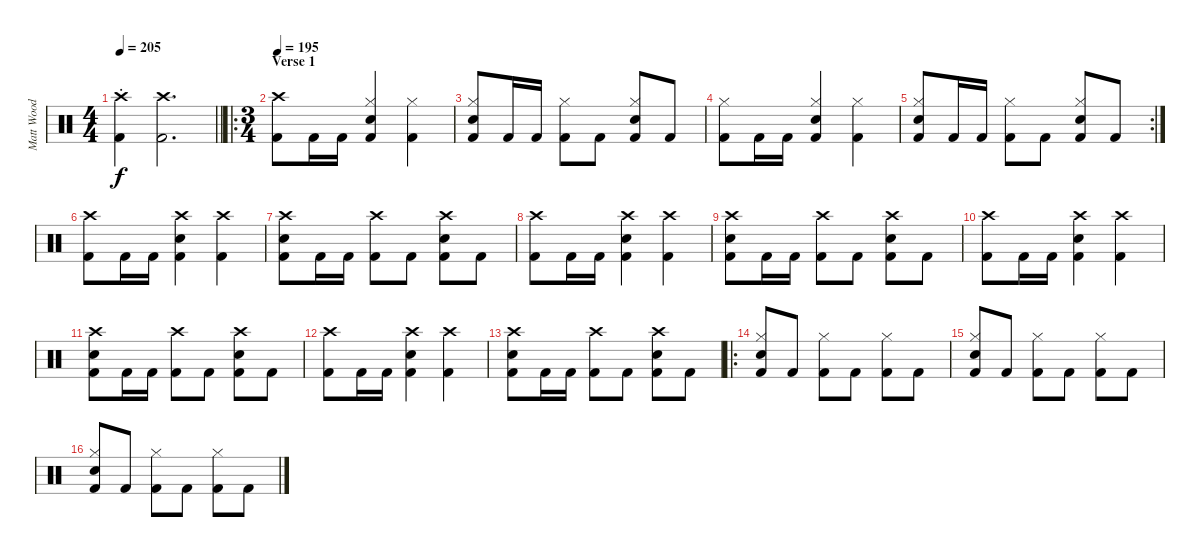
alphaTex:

\track ("Matt Wood" "Matt Wood") {instrument percussion}
\staff {score}
\articulation defaults
\ts (4 4)
\tempo 205
\clef neutral
\barLineRight lightlight
\ks c
("Crash high (hit)"{st} "Kick (hit) 2"{st}).4{dy f} ("Crash high (hit)" "Kick (hit) 2").2{d} |
\ro
\ts (3 4)
\section ("" "Verse 1")
\tempo 195
("Crash high (hit)" "Kick (hit) 2").8 "Kick (hit) 2".16 "Kick (hit) 2".16 ("Hi-Hat (closed)" "Snare (hit) 2" "Kick (hit) 2").4 ("Hi-Hat (closed)" "Kick (hit) 2").4 |
("Hi-Hat (closed)" "Snare (hit) 2" "Kick (hit) 2").8 "Kick (hit) 2".16 "Kick (hit) 2".16 ("Hi-Hat (closed)" "Kick (hit) 2").8 "Kick (hit) 2".8 ("Hi-Hat (closed)" "Snare (hit) 2" "Kick (hit) 2").8 "Kick (hit) 2".8 |
("Hi-Hat (closed)" "Kick (hit) 2").8 "Kick (hit) 2".16 "Kick (hit) 2".16 ("Hi-Hat (closed)" "Snare (hit) 2" "Kick (hit) 2").4 ("Hi-Hat (closed)" "Kick (hit) 2").4 |
\rc 2
("Hi-Hat (closed)" "Snare (hit) 2" "Kick (hit) 2").8 "Kick (hit) 2".16 "Kick (hit) 2".16 ("Hi-Hat (closed)" "Kick (hit) 2").8 "Kick (hit) 2".8 ("Hi-Hat (closed)" "Snare (hit) 2" "Kick (hit) 2").8 "Kick (hit) 2".8 |
("Crash high (hit)" "Kick (hit) 2").8 "Kick (hit) 2".16 "Kick (hit) 2".16 ("Crash high (hit)" "Snare (hit) 2" "Kick (hit) 2").4 ("Crash high (hit)" "Kick (hit) 2").4 |
("Crash high (hit)" "Snare (hit) 2" "Kick (hit) 2").8 "Kick (hit) 2".16 "Kick (hit) 2".16 ("Crash high (hit)" "Kick (hit) 2").8 "Kick (hit) 2".8 ("Crash high (hit)" "Snare (hit) 2" "Kick (hit) 2").8 "Kick (hit) 2".8 |
("Crash high (hit)" "Kick (hit) 2").8 "Kick (hit) 2".16 "Kick (hit) 2".16 ("Crash high (hit)" "Snare (hit) 2" "Kick (hit) 2").4 ("Crash high (hit)" "Kick (hit) 2").4 |
("Crash high (hit)" "Snare (hit) 2" "Kick (hit) 2").8 "Kick (hit) 2".16 "Kick (hit) 2".16 ("Crash high (hit)" "Kick (hit) 2").8 "Kick (hit) 2".8 ("Crash high (hit)" "Snare (hit) 2" "Kick (hit) 2").8 "Kick (hit) 2".8 |
("Crash high (hit)" "Kick (hit) 2").8 "Kick (hit) 2".16 "Kick (hit) 2".16 ("Crash high (hit)" "Snare (hit) 2" "Kick (hit) 2").4 ("Crash high (hit)" "Kick (hit) 2").4 |
("Crash high (hit)" "Snare (hit) 2" "Kick (hit) 2").8 "Kick (hit) 2".16 "Kick (hit) 2".16 ("Crash high (hit)" "Kick (hit) 2").8 "Kick (hit) 2".8 ("Crash high (hit)" "Snare (hit) 2" "Kick (hit) 2").8 "Kick (hit) 2".8 |
("Crash high (hit)" "Kick (hit) 2").8 "Kick (hit) 2".16 "Kick (hit) 2".16 ("Crash high (hit)" "Snare (hit) 2" "Kick (hit) 2").4 ("Crash high (hit)" "Kick (hit) 2").4 |
("Crash high (hit)" "Snare (hit) 2" "Kick (hit) 2").8 "Kick (hit) 2".16 "Kick (hit) 2".16 ("Crash high (hit)" "Kick (hit) 2").8 "Kick (hit) 2".8 ("Crash high (hit)" "Snare (hit) 2" "Kick (hit) 2").8 "Kick (hit) 2".8 |
\ro
("Hi-Hat (closed)" "Snare (hit) 2" "Kick (hit) 2").8 "Kick (hit) 2".8 ("Hi-Hat (closed)" "Kick (hit) 2").8 "Kick (hit) 2".8 ("Hi-Hat (closed)" "Kick (hit) 2").8 "Kick (hit) 2".8 |
("Hi-Hat (closed)" "Snare (hit) 2" "Kick (hit) 2").8 "Kick (hit) 2".8 ("Hi-Hat (closed)" "Kick (hit) 2").8 "Kick (hit) 2".8 ("Hi-Hat (closed)" "Kick (hit) 2").8 "Kick (hit) 2".8 |
("Hi-Hat (closed)" "Snare (hit) 2" "Kick (hit) 2").8 "Kick (hit) 2".8 ("Hi-Hat (closed)" "Kick (hit) 2").8 "Kick (hit) 2".8 ("Hi-Hat (closed)" "Kick (hit) 2").8 "Kick (hit) 2".8
